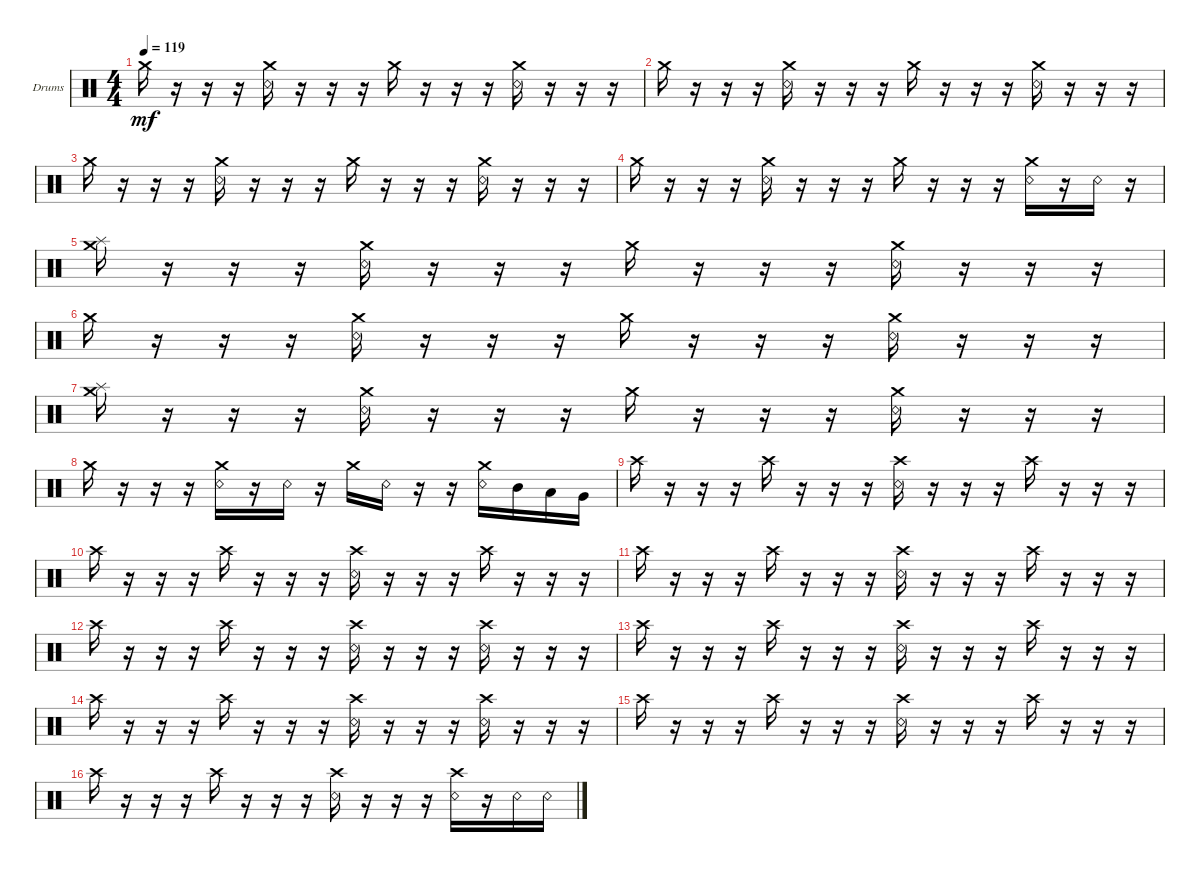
\defaultSystemsLayout 4
\bracketExtendMode groupsimilarinstruments
\firstSystemTrackNameOrientation horizontal
\otherSystemsTrackNameOrientation horizontal
\track ("Drumkit" "Drums") {instrument percussion}
\staff {score}
\articulation defaults
\ts (4 4)
\tempo 119
\clef neutral
\scale
0.333333
\ks c "Crash medium (hit)".16{dy mf}
r.16 r.16 r.16 ("Snare (rim shot)" "Crash medium (hit)").16 r.16 r.16 r.16 "Crash medium (hit)".16 r.16 r.16 r.16 ("Snare (rim shot)" "Crash medium (hit)").16 r.16 r.16 r.16 |
\scale
0.333333 "Crash medium (hit)".16 r.16 r.16 r.16 ("Snare (rim shot)" "Crash medium (hit)").16 r.16 r.16 r.16 "Crash medium (hit)".16 r.16 r.16 r.16 ("Snare (rim shot)" "Crash medium (hit)").16 r.16 r.16 r.16 |
\scale
0.333333 "Crash medium (hit)".16 r.16 r.16 r.16 ("Snare (rim shot)" "Crash medium (hit)").16 r.16 r.16 r.16 "Crash medium (hit)".16 r.16 r.16 r.16 ("Snare (rim shot)" "Crash medium (hit)").16 r.16 r.16 r.16 |
\scale
0.333333 "Crash medium (hit)".16 r.16 r.16 r.16 ("Snare (rim shot)" "Crash medium (hit)").16 r.16 r.16 r.16 "Crash medium (hit)".16 r.16 r.16 r.16 ("Snare (rim shot)" "Crash medium (hit)").16 r.16 "Snare (rim shot)".16 r.16 |
\scale
0.333333 ("Splash (hit)" "Crash medium (hit)").16 r.16 r.16 r.16 ("Snare (rim shot)" "Crash medium (hit)").16 r.16 r.16 r.16 "Crash medium (hit)".16 r.16 r.16 r.16 ("Snare (rim shot)" "Crash medium (hit)").16 r.16 r.16 r.16 |
\scale
0.333333 "Crash medium (hit)".16 r.16 r.16 r.16 ("Snare (rim shot)" "Crash medium (hit)").16 r.16 r.16 r.16 "Crash medium (hit)".16 r.16 r.16 r.16 ("Snare (rim shot)" "Crash medium (hit)").16 r.16 r.16 r.16 |
\scale
0.333333 ("Splash (hit)" "Crash medium (hit)").16 r.16 r.16 r.16 ("Snare (rim shot)" "Crash medium (hit)").16 r.16 r.16 r.16 "Crash medium (hit)".16 r.16 r.16 r.16 ("Snare (rim shot)" "Crash medium (hit)").16 r.16 r.16 r.16 |
\scale
0.333333 "Crash medium (hit)".16 r.16 r.16 r.16 ("Snare (rim shot)" "Crash medium (hit)").16 r.16 "Snare (rim shot)".16 r.16 "Crash medium (hit)".16 "Snare (rim shot)".16 r.16 r.16 ("Snare (rim shot)" "Crash medium (hit)").16 "Mid Tom (hit)".16 "Low Tom (hit)".16 "Very Low Tom (hit)".16 |
\scale
0.333333 "Crash high (hit)".16 r.16 r.16 r.16 "Crash high (hit)".16 r.16 r.16 r.16 ("Snare (rim shot)" "Crash high (hit)").16 r.16 r.16 r.16 "Crash high (hit)".16 r.16 r.16 r.16 |
\scale
0.333333 "Crash high (hit)".16 r.16 r.16 r.16 "Crash high (hit)".16 r.16 r.16 r.16 ("Snare (rim shot)" "Crash high (hit)").16 r.16 r.16 r.16 "Crash high (hit)".16 r.16 r.16 r.16 |
\scale
0.333333 "Crash high (hit)".16 r.16 r.16 r.16 "Crash high (hit)".16 r.16 r.16 r.16 ("Snare (rim shot)" "Crash high (hit)").16 r.16 r.16 r.16 "Crash high (hit)".16 r.16 r.16 r.16 |
\scale
0.333333 "Crash high (hit)".16 r.16 r.16 r.16 "Crash high (hit)".16 r.16 r.16 r.16 ("Snare (rim shot)" "Crash high (hit)").16 r.16 r.16 r.16 ("Crash high (hit)" "Snare (rim shot)").16 r.16 r.16 r.16 |
\scale
0.333333 "Crash high (hit)".16 r.16 r.16 r.16 "Crash high (hit)".16 r.16 r.16 r.16 ("Snare (rim shot)" "Crash high (hit)").16 r.16 r.16 r.16 "Crash high (hit)".16 r.16 r.16 r.16 |
\scale
0.333333 "Crash high (hit)".16 r.16 r.16 r.16 "Crash high (hit)".16 r.16 r.16 r.16 ("Snare (rim shot)" "Crash high (hit)").16 r.16 r.16 r.16 ("Crash high (hit)" "Snare (rim shot)").16 r.16 r.16 r.16 |
\scale
0.333333 "Crash high (hit)".16 r.16 r.16 r.16 "Crash high (hit)".16 r.16 r.16 r.16 ("Snare (rim shot)" "Crash high (hit)").16 r.16 r.16 r.16 "Crash high (hit)".16 r.16 r.16 r.16 |
\scale
0.333333 "Crash high (hit)".16 r.16 r.16 r.16 "Crash high (hit)".16 r.16 r.16 r.16 ("Snare (rim shot)" "Crash high (hit)").16 r.16 r.16 r.16 ("Crash high (hit)" "Snare (rim shot)").16 r.16 "Snare (rim shot)".16 "Snare (rim shot)".16
